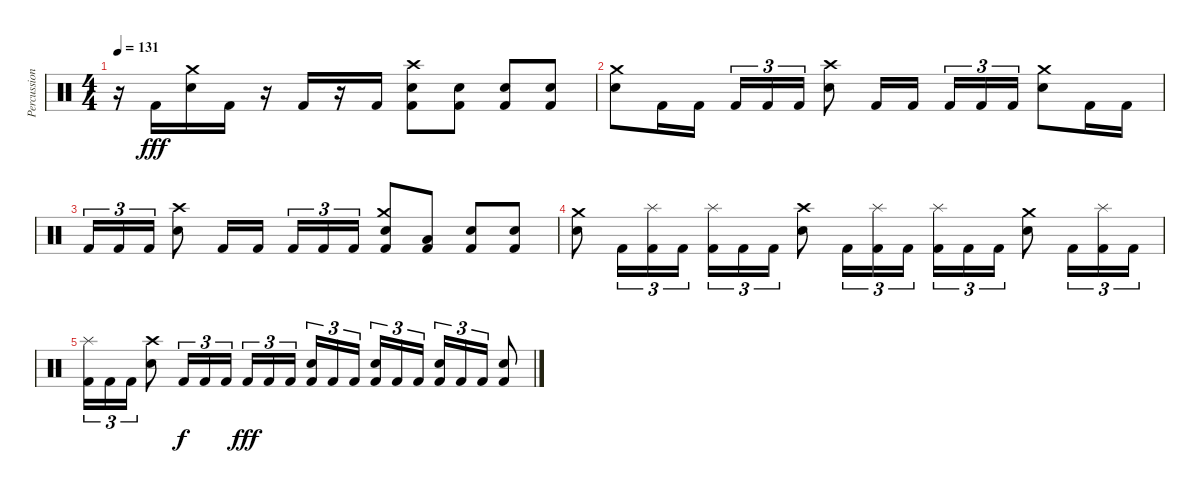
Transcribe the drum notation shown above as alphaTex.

\track ("Percussion" "Percussion") {instrument percussion}
\staff {score}
\articulation defaults
\ts (4 4)
\tempo 131
\clef neutral
\ks c
r.16{dy fff} "Kick (hit) 2".16 ("Crash medium (hit)" "Electric Snare (hit)").16 "Kick (hit) 2".16 r.16 "Kick (hit) 2".16 r.16 "Kick (hit) 2".16 ("Crash high (hit)" "Electric Snare (hit)" "Kick (hit) 2").8 ("Electric Snare (hit)" "Kick (hit) 2").8 ("Electric Snare (hit)" "Kick (hit) 2").8 ("Electric Snare (hit)" "Kick (hit) 2").8 |
("Crash medium (hit)" "Electric Snare (hit)").8 "Kick (hit) 2".16 "Kick (hit) 2".16 "Kick (hit) 2".16{tu (3 2)} "Kick (hit) 2".16{tu (3 2)} "Kick (hit) 2".16{tu (3 2)} ("Crash high (hit)" "Electric Snare (hit)").8 "Kick (hit) 2".16 "Kick (hit) 2".16{beam splitsecondary} "Kick (hit) 2".16{tu (3 2)} "Kick (hit) 2".16{tu (3 2)} "Kick (hit) 2".16{tu (3 2)} ("Crash medium (hit)" "Electric Snare (hit)").8 "Kick (hit) 2".16 "Kick (hit) 2".16 |
"Kick (hit) 2".16{tu (3 2)} "Kick (hit) 2".16{tu (3 2)} "Kick (hit) 2".16{tu (3 2)} ("Crash high (hit)" "Electric Snare (hit)").8 "Kick (hit) 2".16 "Kick (hit) 2".16{beam splitsecondary} "Kick (hit) 2".16{tu (3 2)} "Kick (hit) 2".16{tu (3 2)} "Kick (hit) 2".16{tu (3 2)} ("Crash medium (hit)" "Electric Snare (hit)" "Kick (hit) 2").8 ("Low Tom (hit)" "Kick (hit) 2").8 ("Electric Snare (hit)" "Kick (hit) 2").8 ("Electric Snare (hit)" "Kick (hit) 2").8 |
("Crash medium (hit)" "Electric Snare (hit)").8 "Kick (hit) 2".16{tu (3 2)} ("Splash (hit)" "Kick (hit) 2").16{tu (3 2)} "Kick (hit) 2".16{tu (3 2)} ("Splash (hit)" "Kick (hit) 2").16{tu (3 2)} "Kick (hit) 2".16{tu (3 2)} "Kick (hit) 2".16{tu (3 2)} ("Crash high (hit)" "Electric Snare (hit)").8 "Kick (hit) 2".16{tu (3 2)} ("Splash (hit)" "Kick (hit) 2").16{tu (3 2)} "Kick (hit) 2".16{tu (3 2) beam splitsecondary} ("Splash (hit)" "Kick (hit) 2").16{tu (3 2)} "Kick (hit) 2".16{tu (3 2)} "Kick (hit) 2".16{tu (3 2)} ("Crash medium (hit)" "Electric Snare (hit)").8 "Kick (hit) 2".16{tu (3 2)} ("Splash (hit)" "Kick (hit) 2").16{tu (3 2)} "Kick (hit) 2".16{tu (3 2)} |
("Splash (hit)" "Kick (hit) 2").16{tu (3 2)} "Kick (hit) 2".16{tu (3 2)} "Kick (hit) 2".16{tu (3 2)} ("Crash high (hit)" "Electric Snare (hit)").8 "Kick (hit) 2".16{tu (3 2) dy f} "Kick (hit) 2".16{tu (3 2)} "Kick (hit) 2".16{tu (3 2) beam splitsecondary} "Kick (hit) 2".16{tu (3 2) dy fff} "Kick (hit) 2".16{tu (3 2)} "Kick (hit) 2".16{tu (3 2)} ("Electric Snare (hit)" "Kick (hit) 2").16{tu (3 2)} "Kick (hit) 2".16{tu (3 2)} "Kick (hit) 2".16{tu (3 2) beam splitsecondary} ("Electric Snare (hit)" "Kick (hit) 2").16{tu (3 2)} "Kick (hit) 2".16{tu (3 2)} "Kick (hit) 2".16{tu (3 2)} ("Electric Snare (hit)" "Kick (hit) 2").16{tu (3 2)} "Kick (hit) 2".16{tu (3 2)} "Kick (hit) 2".16{tu (3 2)} ("Electric Snare (hit)" "Kick (hit) 2").8
